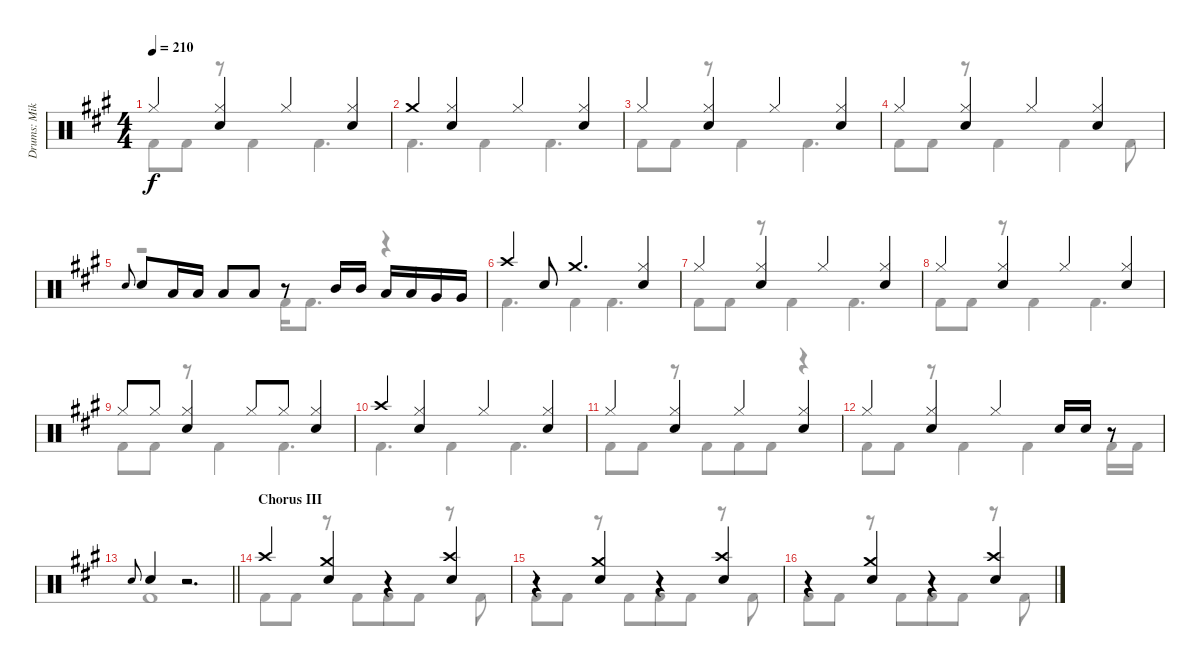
\track ("Drums: Mikkey" "Drums: Mik") {instrument percussion}
\staff {score}
\articulation defaults
\voice
\ts (4 4)
\tempo 210
\clef neutral
\ks a "Hi-Hat (closed)".4{dy f}
("Hi-Hat (closed)" "Snare (hit) 2").4 "Hi-Hat (closed)".4 ("Hi-Hat (closed)" "Snare (hit) 2").4 |
"Crash medium (hit)".4 ("Hi-Hat (closed)" "Snare (hit) 2").4 "Hi-Hat (closed)".4 ("Hi-Hat (closed)" "Snare (hit) 2").4 |
"Hi-Hat (closed)".4 ("Hi-Hat (closed)" "Snare (hit) 2").4 "Hi-Hat (closed)".4 ("Hi-Hat (closed)" "Snare (hit) 2").4 |
"Hi-Hat (closed)".4 ("Hi-Hat (closed)" "Snare (hit) 2").4 "Hi-Hat (closed)".4 ("Hi-Hat (closed)" "Snare (hit) 2").4 |
"Electric Snare (hit)".8{gr onbeat} "Snare (hit) 2".8 "Low Tom (hit)".16 "Low Tom (hit)".16 "Low Tom (hit)".8 "Low Tom (hit)".8 r.8 "Mid Tom (hit)".16 "Mid Tom (hit)".16 "Low Tom (hit)".16 "Low Tom (hit)".16 "Very Low Tom (hit)".16 "Very Low Tom (hit)".16 |
"Crash high (hit)".4 "Snare (hit) 2".8 "Crash medium (hit)".4{d} ("Hi-Hat (closed)" "Snare (hit) 2").4 |
"Hi-Hat (closed)".4 ("Hi-Hat (closed)" "Snare (hit) 2").4 "Hi-Hat (closed)".4 ("Hi-Hat (closed)" "Snare (hit) 2").4 |
"Hi-Hat (closed)".4 ("Hi-Hat (closed)" "Snare (hit) 2").4 "Hi-Hat (closed)".4 ("Hi-Hat (closed)" "Snare (hit) 2").4 |
"Hi-Hat (closed)".8 "Hi-Hat (closed)".8 ("Hi-Hat (closed)" "Snare (hit) 2").4 "Hi-Hat (closed)".8 "Hi-Hat (closed)".8 ("Hi-Hat (closed)" "Snare (hit) 2").4 |
"Crash high (hit)".4 ("Hi-Hat (closed)" "Snare (hit) 2").4 "Hi-Hat (closed)".4 ("Hi-Hat (closed)" "Snare (hit) 2").4 |
"Hi-Hat (closed)".4 ("Hi-Hat (closed)" "Snare (hit) 2").4 "Hi-Hat (closed)".4 ("Hi-Hat (closed)" "Snare (hit) 2").4 |
"Hi-Hat (closed)".4 ("Hi-Hat (closed)" "Snare (hit) 2").4 "Hi-Hat (closed)".4 "Snare (hit) 2".16 "Snare (hit) 2".16 r.8 |
\barLineRight lightlight "Electric Snare (hit)".8{gr onbeat} "Snare (hit) 2".4
r.2{d} |
\section ("" "Chorus III")
"Crash high (hit)".4 ("Crash medium (hit)" "Snare (hit) 2").4 r.4 ("Crash high (hit)" "Snare (hit) 2").4 |
r.4 ("Crash medium (hit)" "Snare (hit) 2").4 r.4 ("Crash high (hit)" "Snare (hit) 2").4 |
r.4 ("Crash medium (hit)" "Snare (hit) 2").4 r.4 ("Crash high (hit)" "Snare (hit) 2").4
\voice
\clef neutral
\ottava regular
\simile none
\ks a "Kick (hit) 2".8{dy f} "Kick (hit) 2".8
r.8 "Kick (hit) 2".4{beam merge} "Kick (hit) 2".4{d} |
"Kick (hit) 2".4{d} "Kick (hit) 2".4{beam merge} "Kick (hit) 2".4{d} |
"Kick (hit) 2".8 "Kick (hit) 2".8 r.8 "Kick (hit) 2".4{beam merge} "Kick (hit) 2".4{d} |
"Kick (hit) 2".8 "Kick (hit) 2".8 r.8 "Kick (hit) 2".4{beam merge} "Kick (hit) 2".4 "Kick (hit) 2".8 |
r.2 "Kick (hit) 2".16 "Kick (hit) 2".8{d} r.4 |
"Kick (hit) 2".4{d} "Kick (hit) 2".4 "Kick (hit) 2".4{d} |
"Kick (hit) 2".8 "Kick (hit) 2".8 r.8 "Kick (hit) 2".4{beam merge} "Kick (hit) 2".4{d} |
"Kick (hit) 2".8 "Kick (hit) 2".8 r.8 "Kick (hit) 2".4{beam merge} "Kick (hit) 2".4{d} |
"Kick (hit) 2".8 "Kick (hit) 2".8 r.8 "Kick (hit) 2".4{beam merge} "Kick (hit) 2".4{d} |
"Kick (hit) 2".4{d} "Kick (hit) 2".4{beam merge} "Kick (hit) 2".4{d} |
"Kick (hit) 2".8 "Kick (hit) 2".8 r.8 "Kick (hit) 2".8{beam merge} "Kick (hit) 2".8{beam merge} "Kick (hit) 2".8 r.4 |
"Kick (hit) 2".8 "Kick (hit) 2".8 r.8 "Kick (hit) 2".4{beam merge} "Kick (hit) 2".4{beam merge} "Kick (hit) 2".16 "Kick (hit) 2".16 |
\barLineRight lightlight "Kick (hit) 2".1
|
"Kick (hit) 2".8 "Kick (hit) 2".8 r.8 "Kick (hit) 2".8{beam merge} "Kick (hit) 2".8 "Kick (hit) 2".8 r.8 "Kick (hit) 2".8 |
"Kick (hit) 2".8 "Kick (hit) 2".8 r.8 "Kick (hit) 2".8{beam merge} "Kick (hit) 2".8 "Kick (hit) 2".8 r.8 "Kick (hit) 2".8 |
"Kick (hit) 2".8 "Kick (hit) 2".8 r.8 "Kick (hit) 2".8{beam merge} "Kick (hit) 2".8 "Kick (hit) 2".8 r.8 "Kick (hit) 2".8
